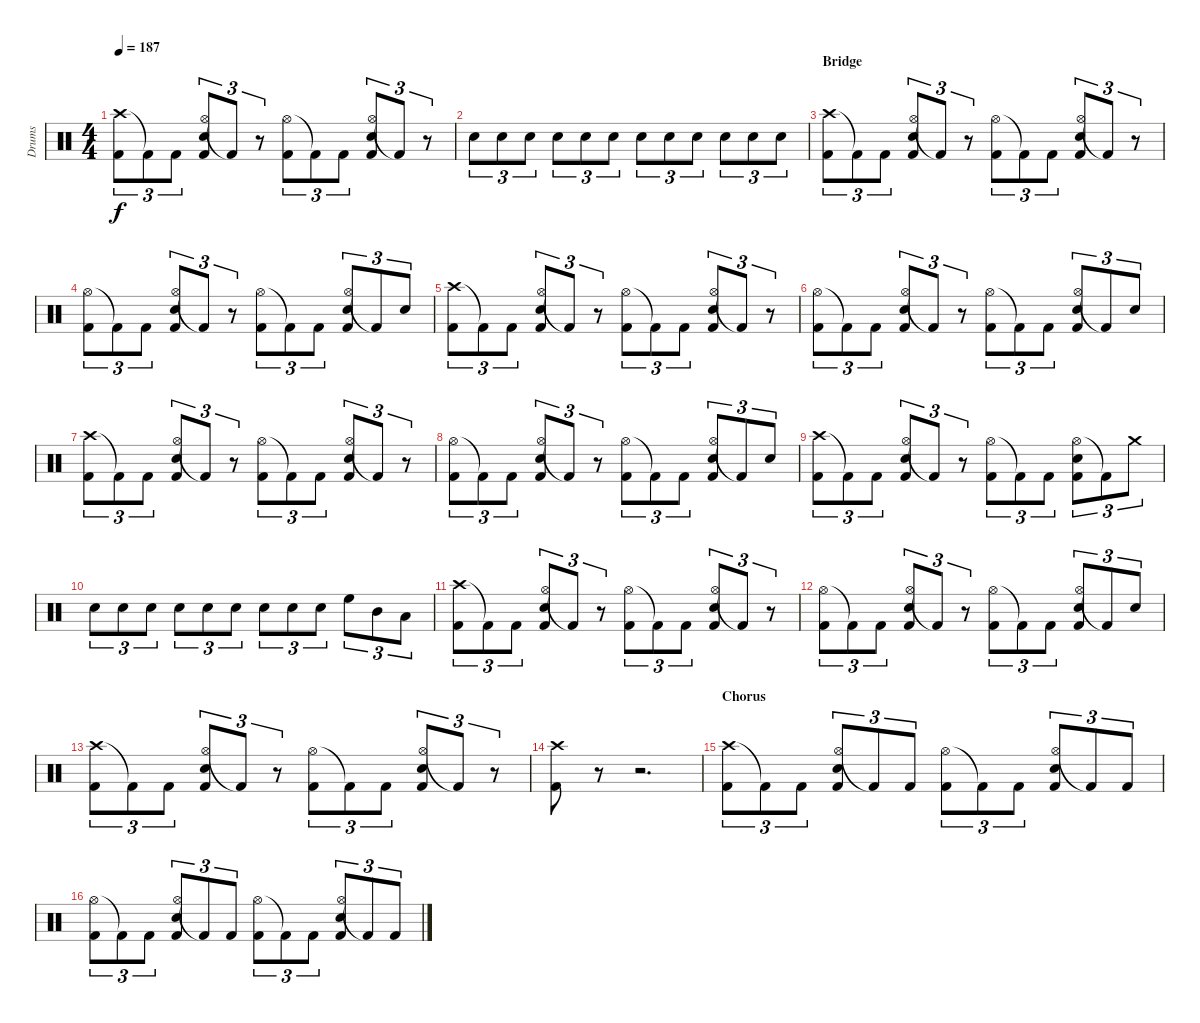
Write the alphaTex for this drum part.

\track ("Drums" "Drums") {instrument percussion}
\staff {score}
\articulation defaults
\ts (4 4)
\tempo 187
\clef neutral
\ks c
("Crash high (hit)" "Kick (hit) 2").8{tu (3 2) dy f} "Kick (hit) 2"{t}.8{tu (3 2)} "Kick (hit) 2".8{tu (3 2)} ("Hi-Hat (open)" "Snare (hit) 2" "Kick (hit) 2").8{tu (3 2)} "Kick (hit) 2"{t}.8{tu (3 2)} r.8{tu (3 2)} ("Hi-Hat (open)" "Kick (hit) 2").8{tu (3 2)} "Kick (hit) 2"{t}.8{tu (3 2)} "Kick (hit) 2".8{tu (3 2)} ("Hi-Hat (open)" "Snare (hit) 2" "Kick (hit) 2").8{tu (3 2)} "Kick (hit) 2"{t}.8{tu (3 2)} r.8{tu (3 2)} |
"Snare (hit) 2".8{tu (3 2)} "Snare (hit) 2".8{tu (3 2)} "Snare (hit) 2".8{tu (3 2)} "Snare (hit) 2".8{tu (3 2)} "Snare (hit) 2".8{tu (3 2)} "Snare (hit) 2".8{tu (3 2)} "Snare (hit) 2".8{tu (3 2)} "Snare (hit) 2".8{tu (3 2)} "Snare (hit) 2".8{tu (3 2)} "Snare (hit) 2".8{tu (3 2)} "Snare (hit) 2".8{tu (3 2)} "Snare (hit) 2".8{tu (3 2)} |
\section ("" "Bridge")
("Crash high (hit)" "Kick (hit) 2").8{tu (3 2)} "Kick (hit) 2"{t}.8{tu (3 2)} "Kick (hit) 2".8{tu (3 2)} ("Hi-Hat (open)" "Snare (hit) 2" "Kick (hit) 2").8{tu (3 2)} "Kick (hit) 2"{t}.8{tu (3 2)} r.8{tu (3 2)} ("Hi-Hat (open)" "Kick (hit) 2").8{tu (3 2)} "Kick (hit) 2"{t}.8{tu (3 2)} "Kick (hit) 2".8{tu (3 2)} ("Hi-Hat (open)" "Snare (hit) 2" "Kick (hit) 2").8{tu (3 2)} "Kick (hit) 2"{t}.8{tu (3 2)} r.8{tu (3 2)} |
("Hi-Hat (open)" "Kick (hit) 2").8{tu (3 2)} "Kick (hit) 2"{t}.8{tu (3 2)} "Kick (hit) 2".8{tu (3 2)} ("Hi-Hat (open)" "Snare (hit) 2" "Kick (hit) 2").8{tu (3 2)} "Kick (hit) 2"{t}.8{tu (3 2)} r.8{tu (3 2)} ("Hi-Hat (open)" "Kick (hit) 2").8{tu (3 2)} "Kick (hit) 2"{t}.8{tu (3 2)} "Kick (hit) 2".8{tu (3 2)} ("Hi-Hat (open)" "Snare (hit) 2" "Kick (hit) 2").8{tu (3 2)} "Kick (hit) 2"{t}.8{tu (3 2)} "Snare (hit) 2".8{tu (3 2)} |
("Crash high (hit)" "Kick (hit) 2").8{tu (3 2)} "Kick (hit) 2"{t}.8{tu (3 2)} "Kick (hit) 2".8{tu (3 2)} ("Hi-Hat (open)" "Snare (hit) 2" "Kick (hit) 2").8{tu (3 2)} "Kick (hit) 2"{t}.8{tu (3 2)} r.8{tu (3 2)} ("Hi-Hat (open)" "Kick (hit) 2").8{tu (3 2)} "Kick (hit) 2"{t}.8{tu (3 2)} "Kick (hit) 2".8{tu (3 2)} ("Hi-Hat (open)" "Snare (hit) 2" "Kick (hit) 2").8{tu (3 2)} "Kick (hit) 2"{t}.8{tu (3 2)} r.8{tu (3 2)} |
("Hi-Hat (open)" "Kick (hit) 2").8{tu (3 2)} "Kick (hit) 2"{t}.8{tu (3 2)} "Kick (hit) 2".8{tu (3 2)} ("Hi-Hat (open)" "Snare (hit) 2" "Kick (hit) 2").8{tu (3 2)} "Kick (hit) 2"{t}.8{tu (3 2)} r.8{tu (3 2)} ("Hi-Hat (open)" "Kick (hit) 2").8{tu (3 2)} "Kick (hit) 2"{t}.8{tu (3 2)} "Kick (hit) 2".8{tu (3 2)} ("Hi-Hat (open)" "Snare (hit) 2" "Kick (hit) 2").8{tu (3 2)} "Kick (hit) 2"{t}.8{tu (3 2)} "Snare (hit) 2".8{tu (3 2)} |
("Crash high (hit)" "Kick (hit) 2").8{tu (3 2)} "Kick (hit) 2"{t}.8{tu (3 2)} "Kick (hit) 2".8{tu (3 2)} ("Hi-Hat (open)" "Snare (hit) 2" "Kick (hit) 2").8{tu (3 2)} "Kick (hit) 2"{t}.8{tu (3 2)} r.8{tu (3 2)} ("Hi-Hat (open)" "Kick (hit) 2").8{tu (3 2)} "Kick (hit) 2"{t}.8{tu (3 2)} "Kick (hit) 2".8{tu (3 2)} ("Hi-Hat (open)" "Snare (hit) 2" "Kick (hit) 2").8{tu (3 2)} "Kick (hit) 2"{t}.8{tu (3 2)} r.8{tu (3 2)} |
("Hi-Hat (open)" "Kick (hit) 2").8{tu (3 2)} "Kick (hit) 2"{t}.8{tu (3 2)} "Kick (hit) 2".8{tu (3 2)} ("Hi-Hat (open)" "Snare (hit) 2" "Kick (hit) 2").8{tu (3 2)} "Kick (hit) 2"{t}.8{tu (3 2)} r.8{tu (3 2)} ("Hi-Hat (open)" "Kick (hit) 2").8{tu (3 2)} "Kick (hit) 2"{t}.8{tu (3 2)} "Kick (hit) 2".8{tu (3 2)} ("Hi-Hat (open)" "Snare (hit) 2" "Kick (hit) 2").8{tu (3 2)} "Kick (hit) 2"{t}.8{tu (3 2)} "Snare (hit) 2".8{tu (3 2)} |
("Crash high (hit)" "Kick (hit) 2").8{tu (3 2)} "Kick (hit) 2"{t}.8{tu (3 2)} "Kick (hit) 2".8{tu (3 2)} ("Hi-Hat (open)" "Snare (hit) 2" "Kick (hit) 2").8{tu (3 2)} "Kick (hit) 2"{t}.8{tu (3 2)} r.8{tu (3 2)} ("Hi-Hat (open)" "Kick (hit) 2").8{tu (3 2)} "Kick (hit) 2"{t}.8{tu (3 2)} "Kick (hit) 2".8{tu (3 2)} ("Hi-Hat (open)" "Snare (hit) 2" "Kick (hit) 2").8{tu (3 2)} "Kick (hit) 2"{t}.8{tu (3 2)} "Crash medium (hit)".8{tu (3 2)} |
"Snare (hit) 2".8{tu (3 2)} "Snare (hit) 2".8{tu (3 2)} "Snare (hit) 2".8{tu (3 2)} "Snare (hit) 2".8{tu (3 2)} "Snare (hit) 2".8{tu (3 2)} "Snare (hit) 2".8{tu (3 2)} "Snare (hit) 2".8{tu (3 2)} "Snare (hit) 2".8{tu (3 2)} "Snare (hit) 2".8{tu (3 2)} "High Floor Tom (hit)".8{tu (3 2)} "Mid Tom (hit)".8{tu (3 2)} "Low Tom (hit)".8{tu (3 2)} |
("Crash high (hit)" "Kick (hit) 2").8{tu (3 2)} "Kick (hit) 2"{t}.8{tu (3 2)} "Kick (hit) 2".8{tu (3 2)} ("Hi-Hat (open)" "Snare (hit) 2" "Kick (hit) 2").8{tu (3 2)} "Kick (hit) 2"{t}.8{tu (3 2)} r.8{tu (3 2)} ("Hi-Hat (open)" "Kick (hit) 2").8{tu (3 2)} "Kick (hit) 2"{t}.8{tu (3 2)} "Kick (hit) 2".8{tu (3 2)} ("Hi-Hat (open)" "Snare (hit) 2" "Kick (hit) 2").8{tu (3 2)} "Kick (hit) 2"{t}.8{tu (3 2)} r.8{tu (3 2)} |
("Hi-Hat (open)" "Kick (hit) 2").8{tu (3 2)} "Kick (hit) 2"{t}.8{tu (3 2)} "Kick (hit) 2".8{tu (3 2)} ("Hi-Hat (open)" "Snare (hit) 2" "Kick (hit) 2").8{tu (3 2)} "Kick (hit) 2"{t}.8{tu (3 2)} r.8{tu (3 2)} ("Hi-Hat (open)" "Kick (hit) 2").8{tu (3 2)} "Kick (hit) 2"{t}.8{tu (3 2)} "Kick (hit) 2".8{tu (3 2)} ("Hi-Hat (open)" "Snare (hit) 2" "Kick (hit) 2").8{tu (3 2)} "Kick (hit) 2"{t}.8{tu (3 2)} "Snare (hit) 2".8{tu (3 2)} |
("Crash high (hit)" "Kick (hit) 2").8{tu (3 2)} "Kick (hit) 2"{t}.8{tu (3 2)} "Kick (hit) 2".8{tu (3 2)} ("Hi-Hat (open)" "Snare (hit) 2" "Kick (hit) 2").8{tu (3 2)} "Kick (hit) 2"{t}.8{tu (3 2)} r.8{tu (3 2)} ("Hi-Hat (open)" "Kick (hit) 2").8{tu (3 2)} "Kick (hit) 2"{t}.8{tu (3 2)} "Kick (hit) 2".8{tu (3 2)} ("Hi-Hat (open)" "Snare (hit) 2" "Kick (hit) 2").8{tu (3 2)} "Kick (hit) 2"{t}.8{tu (3 2)} r.8{tu (3 2)} |
("Crash high (hit)" "Kick (hit) 2").8 r.8 r.2{d} |
\section ("" "Chorus")
("Crash high (hit)" "Kick (hit) 2").8{tu (3 2)} "Kick (hit) 2"{t}.8{tu (3 2)} "Kick (hit) 2".8{tu (3 2)} ("Hi-Hat (open)" "Snare (hit) 2" "Kick (hit) 2").8{tu (3 2)} "Kick (hit) 2"{t}.8{tu (3 2)} "Kick (hit) 2".8{tu (3 2)} ("Hi-Hat (open)" "Kick (hit) 2").8{tu (3 2)} "Kick (hit) 2"{t}.8{tu (3 2)} "Kick (hit) 2".8{tu (3 2)} ("Hi-Hat (open)" "Snare (hit) 2" "Kick (hit) 2").8{tu (3 2)} "Kick (hit) 2"{t}.8{tu (3 2)} "Kick (hit) 2".8{tu (3 2)} |
("Hi-Hat (open)" "Kick (hit) 2").8{tu (3 2)} "Kick (hit) 2"{t}.8{tu (3 2)} "Kick (hit) 2".8{tu (3 2)} ("Hi-Hat (open)" "Snare (hit) 2" "Kick (hit) 2").8{tu (3 2)} "Kick (hit) 2"{t}.8{tu (3 2)} "Kick (hit) 2".8{tu (3 2)} ("Hi-Hat (open)" "Kick (hit) 2").8{tu (3 2)} "Kick (hit) 2"{t}.8{tu (3 2)} "Kick (hit) 2".8{tu (3 2)} ("Hi-Hat (open)" "Snare (hit) 2" "Kick (hit) 2").8{tu (3 2)} "Kick (hit) 2"{t}.8{tu (3 2)} "Kick (hit) 2".8{tu (3 2)}
